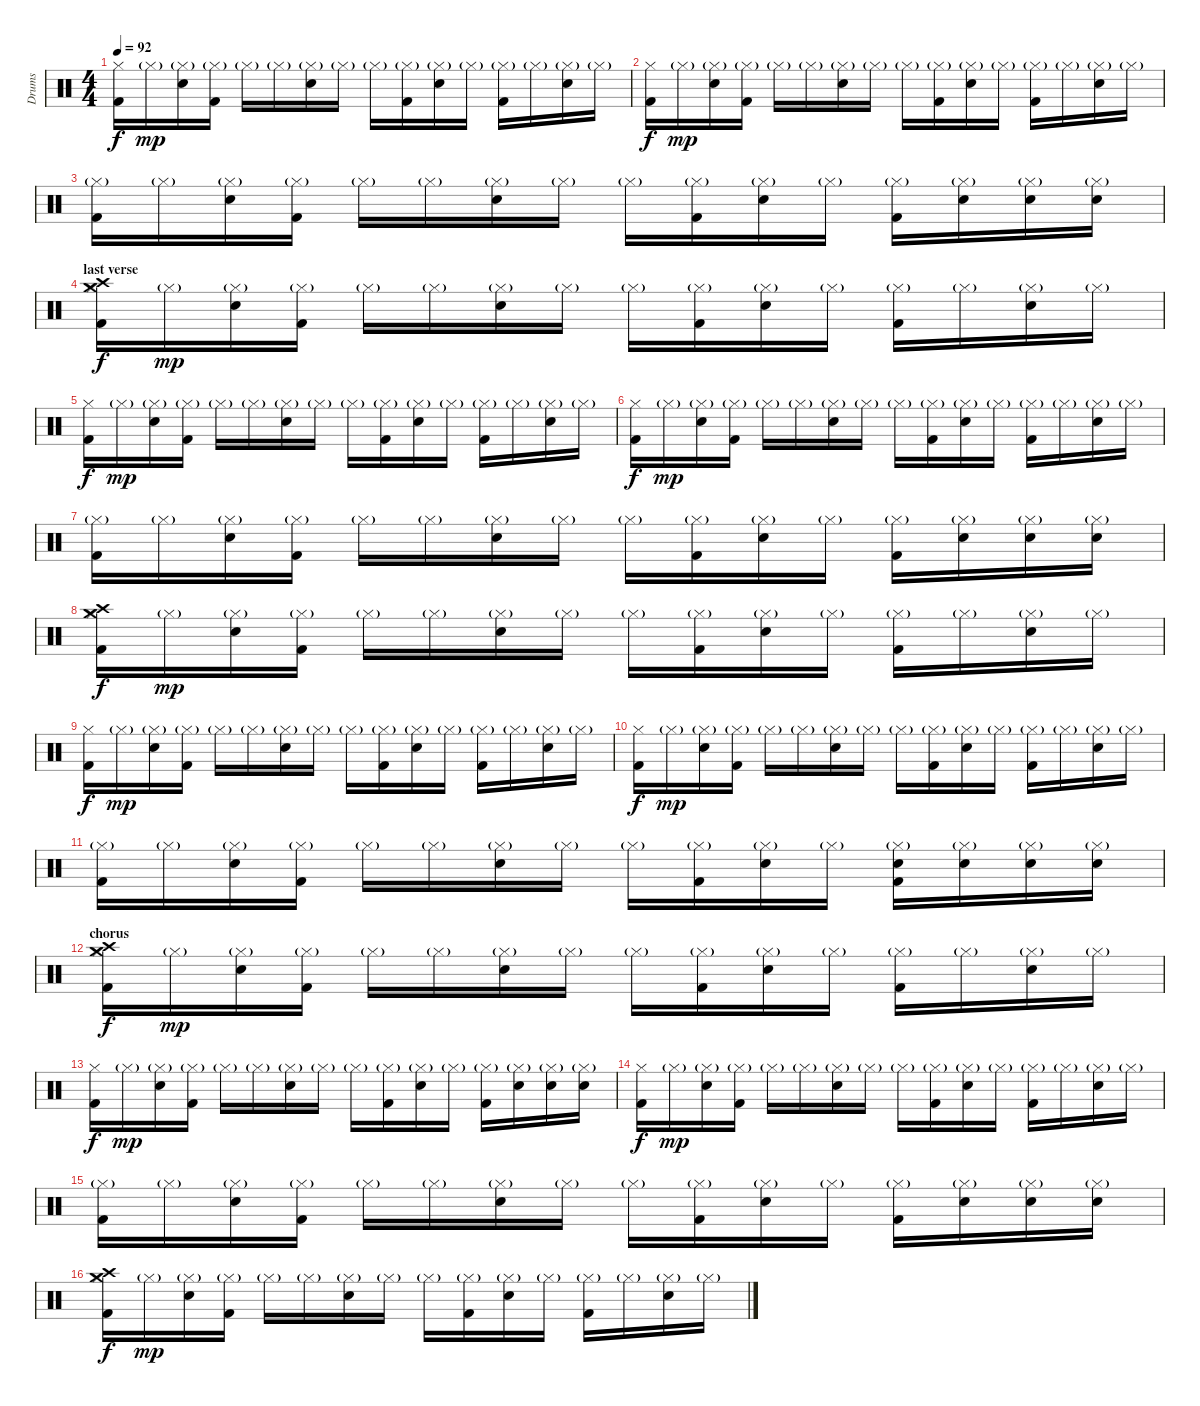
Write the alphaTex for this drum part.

\track ("Drums" "Drums") {instrument percussion}
\staff {score}
\articulation defaults
\ts (4 4)
\tempo 92
\clef neutral
\ks c
("Hi-Hat (closed)" "Kick (hit) 2").16{dy f} "Hi-Hat (closed)"{g}.16{dy mp} ("Hi-Hat (closed)"{g} "Snare (hit) 2").16 ("Hi-Hat (closed)"{g} "Kick (hit) 2").16 "Hi-Hat (closed)"{g}.16 "Hi-Hat (closed)"{g}.16 ("Hi-Hat (closed)"{g} "Snare (hit) 2").16 "Hi-Hat (closed)"{g}.16 "Hi-Hat (closed)"{g}.16 ("Hi-Hat (closed)"{g} "Kick (hit) 2").16 ("Hi-Hat (closed)"{g} "Snare (hit) 2").16 "Hi-Hat (closed)"{g}.16 ("Hi-Hat (closed)"{g} "Kick (hit) 2").16 "Hi-Hat (closed)"{g}.16 ("Hi-Hat (closed)"{g} "Snare (hit) 2").16 "Hi-Hat (closed)"{g}.16 |
("Hi-Hat (closed)" "Kick (hit) 2").16{dy f} "Hi-Hat (closed)"{g}.16{dy mp} ("Hi-Hat (closed)"{g} "Snare (hit) 2").16 ("Hi-Hat (closed)"{g} "Kick (hit) 2").16 "Hi-Hat (closed)"{g}.16 "Hi-Hat (closed)"{g}.16 ("Hi-Hat (closed)"{g} "Snare (hit) 2").16 "Hi-Hat (closed)"{g}.16 "Hi-Hat (closed)"{g}.16 ("Hi-Hat (closed)"{g} "Kick (hit) 2").16 ("Hi-Hat (closed)"{g} "Snare (hit) 2").16 "Hi-Hat (closed)"{g}.16 ("Hi-Hat (closed)"{g} "Kick (hit) 2").16 "Hi-Hat (closed)"{g}.16 ("Hi-Hat (closed)"{g} "Snare (hit) 2").16 "Hi-Hat (closed)"{g}.16 |
("Hi-Hat (closed)"{g} "Kick (hit) 2").16 "Hi-Hat (closed)"{g}.16 ("Hi-Hat (closed)"{g} "Snare (hit) 2").16 ("Hi-Hat (closed)"{g} "Kick (hit) 2").16 "Hi-Hat (closed)"{g}.16 "Hi-Hat (closed)"{g}.16 ("Hi-Hat (closed)"{g} "Snare (hit) 2").16 "Hi-Hat (closed)"{g}.16 "Hi-Hat (closed)"{g}.16 ("Hi-Hat (closed)"{g} "Kick (hit) 2").16 ("Hi-Hat (closed)"{g} "Snare (hit) 2").16 "Hi-Hat (closed)"{g}.16 ("Hi-Hat (closed)"{g} "Kick (hit) 2").16 ("Hi-Hat (closed)"{g} "Snare (hit) 2").16 ("Hi-Hat (closed)"{g} "Snare (hit) 2").16 ("Hi-Hat (closed)"{g} "Snare (hit) 2").16 |
\section ("" "last verse")
("Hi-Hat (closed)" "Kick (hit) 2" "Crash medium (hit)" "Crash high (hit)").16{dy f} "Hi-Hat (closed)"{g}.16{dy mp} ("Hi-Hat (closed)"{g} "Snare (hit) 2").16 ("Hi-Hat (closed)"{g} "Kick (hit) 2").16 "Hi-Hat (closed)"{g}.16 "Hi-Hat (closed)"{g}.16 ("Hi-Hat (closed)"{g} "Snare (hit) 2").16 "Hi-Hat (closed)"{g}.16 "Hi-Hat (closed)"{g}.16 ("Hi-Hat (closed)"{g} "Kick (hit) 2").16 ("Hi-Hat (closed)"{g} "Snare (hit) 2").16 "Hi-Hat (closed)"{g}.16 ("Hi-Hat (closed)"{g} "Kick (hit) 2").16 "Hi-Hat (closed)"{g}.16 ("Hi-Hat (closed)"{g} "Snare (hit) 2").16 "Hi-Hat (closed)"{g}.16 |
("Hi-Hat (closed)" "Kick (hit) 2").16{dy f} "Hi-Hat (closed)"{g}.16{dy mp} ("Hi-Hat (closed)"{g} "Snare (hit) 2").16 ("Hi-Hat (closed)"{g} "Kick (hit) 2").16 "Hi-Hat (closed)"{g}.16 "Hi-Hat (closed)"{g}.16 ("Hi-Hat (closed)"{g} "Snare (hit) 2").16 "Hi-Hat (closed)"{g}.16 "Hi-Hat (closed)"{g}.16 ("Hi-Hat (closed)"{g} "Kick (hit) 2").16 ("Hi-Hat (closed)"{g} "Snare (hit) 2").16 "Hi-Hat (closed)"{g}.16 ("Hi-Hat (closed)"{g} "Kick (hit) 2").16 "Hi-Hat (closed)"{g}.16 ("Hi-Hat (closed)"{g} "Snare (hit) 2").16 "Hi-Hat (closed)"{g}.16 |
("Hi-Hat (closed)" "Kick (hit) 2").16{dy f} "Hi-Hat (closed)"{g}.16{dy mp} ("Hi-Hat (closed)"{g} "Snare (hit) 2").16 ("Hi-Hat (closed)"{g} "Kick (hit) 2").16 "Hi-Hat (closed)"{g}.16 "Hi-Hat (closed)"{g}.16 ("Hi-Hat (closed)"{g} "Snare (hit) 2").16 "Hi-Hat (closed)"{g}.16 "Hi-Hat (closed)"{g}.16 ("Hi-Hat (closed)"{g} "Kick (hit) 2").16 ("Hi-Hat (closed)"{g} "Snare (hit) 2").16 "Hi-Hat (closed)"{g}.16 ("Hi-Hat (closed)"{g} "Kick (hit) 2").16 "Hi-Hat (closed)"{g}.16 ("Hi-Hat (closed)"{g} "Snare (hit) 2").16 "Hi-Hat (closed)"{g}.16 |
("Hi-Hat (closed)"{g} "Kick (hit) 2").16 "Hi-Hat (closed)"{g}.16 ("Hi-Hat (closed)"{g} "Snare (hit) 2").16 ("Hi-Hat (closed)"{g} "Kick (hit) 2").16 "Hi-Hat (closed)"{g}.16 "Hi-Hat (closed)"{g}.16 ("Hi-Hat (closed)"{g} "Snare (hit) 2").16 "Hi-Hat (closed)"{g}.16 "Hi-Hat (closed)"{g}.16 ("Hi-Hat (closed)"{g} "Kick (hit) 2").16 ("Hi-Hat (closed)"{g} "Snare (hit) 2").16 "Hi-Hat (closed)"{g}.16 ("Hi-Hat (closed)"{g} "Kick (hit) 2").16 ("Hi-Hat (closed)"{g} "Snare (hit) 2").16 ("Hi-Hat (closed)"{g} "Snare (hit) 2").16 ("Hi-Hat (closed)"{g} "Snare (hit) 2").16 |
("Hi-Hat (closed)" "Kick (hit) 2" "Crash medium (hit)" "Crash high (hit)").16{dy f} "Hi-Hat (closed)"{g}.16{dy mp} ("Hi-Hat (closed)"{g} "Snare (hit) 2").16 ("Hi-Hat (closed)"{g} "Kick (hit) 2").16 "Hi-Hat (closed)"{g}.16 "Hi-Hat (closed)"{g}.16 ("Hi-Hat (closed)"{g} "Snare (hit) 2").16 "Hi-Hat (closed)"{g}.16 "Hi-Hat (closed)"{g}.16 ("Hi-Hat (closed)"{g} "Kick (hit) 2").16 ("Hi-Hat (closed)"{g} "Snare (hit) 2").16 "Hi-Hat (closed)"{g}.16 ("Hi-Hat (closed)"{g} "Kick (hit) 2").16 "Hi-Hat (closed)"{g}.16 ("Hi-Hat (closed)"{g} "Snare (hit) 2").16 "Hi-Hat (closed)"{g}.16 |
("Hi-Hat (closed)" "Kick (hit) 2").16{dy f} "Hi-Hat (closed)"{g}.16{dy mp} ("Hi-Hat (closed)"{g} "Snare (hit) 2").16 ("Hi-Hat (closed)"{g} "Kick (hit) 2").16 "Hi-Hat (closed)"{g}.16 "Hi-Hat (closed)"{g}.16 ("Hi-Hat (closed)"{g} "Snare (hit) 2").16 "Hi-Hat (closed)"{g}.16 "Hi-Hat (closed)"{g}.16 ("Hi-Hat (closed)"{g} "Kick (hit) 2").16 ("Hi-Hat (closed)"{g} "Snare (hit) 2").16 "Hi-Hat (closed)"{g}.16 ("Hi-Hat (closed)"{g} "Kick (hit) 2").16 "Hi-Hat (closed)"{g}.16 ("Hi-Hat (closed)"{g} "Snare (hit) 2").16 "Hi-Hat (closed)"{g}.16 |
("Hi-Hat (closed)" "Kick (hit) 2").16{dy f} "Hi-Hat (closed)"{g}.16{dy mp} ("Hi-Hat (closed)"{g} "Snare (hit) 2").16 ("Hi-Hat (closed)"{g} "Kick (hit) 2").16 "Hi-Hat (closed)"{g}.16 "Hi-Hat (closed)"{g}.16 ("Hi-Hat (closed)"{g} "Snare (hit) 2").16 "Hi-Hat (closed)"{g}.16 "Hi-Hat (closed)"{g}.16 ("Hi-Hat (closed)"{g} "Kick (hit) 2").16 ("Hi-Hat (closed)"{g} "Snare (hit) 2").16 "Hi-Hat (closed)"{g}.16 ("Hi-Hat (closed)"{g} "Kick (hit) 2").16 "Hi-Hat (closed)"{g}.16 ("Hi-Hat (closed)"{g} "Snare (hit) 2").16 "Hi-Hat (closed)"{g}.16 |
("Hi-Hat (closed)"{g} "Kick (hit) 2").16 "Hi-Hat (closed)"{g}.16 ("Hi-Hat (closed)"{g} "Snare (hit) 2").16 ("Hi-Hat (closed)"{g} "Kick (hit) 2").16 "Hi-Hat (closed)"{g}.16 "Hi-Hat (closed)"{g}.16 ("Hi-Hat (closed)"{g} "Snare (hit) 2").16 "Hi-Hat (closed)"{g}.16 "Hi-Hat (closed)"{g}.16 ("Hi-Hat (closed)"{g} "Kick (hit) 2").16 ("Hi-Hat (closed)"{g} "Snare (hit) 2").16 "Hi-Hat (closed)"{g}.16 ("Hi-Hat (closed)"{g} "Kick (hit) 2" "Snare (hit) 2").16 ("Hi-Hat (closed)"{g} "Snare (hit) 2").16 ("Hi-Hat (closed)"{g} "Snare (hit) 2").16 ("Hi-Hat (closed)"{g} "Snare (hit) 2").16 |
\section ("" "chorus")
("Hi-Hat (closed)" "Kick (hit) 2" "Crash medium (hit)" "Crash high (hit)").16{dy f} "Hi-Hat (closed)"{g}.16{dy mp} ("Hi-Hat (closed)"{g} "Snare (hit) 2").16 ("Hi-Hat (closed)"{g} "Kick (hit) 2").16 "Hi-Hat (closed)"{g}.16 "Hi-Hat (closed)"{g}.16 ("Hi-Hat (closed)"{g} "Snare (hit) 2").16 "Hi-Hat (closed)"{g}.16 "Hi-Hat (closed)"{g}.16 ("Hi-Hat (closed)"{g} "Kick (hit) 2").16 ("Hi-Hat (closed)"{g} "Snare (hit) 2").16 "Hi-Hat (closed)"{g}.16 ("Hi-Hat (closed)"{g} "Kick (hit) 2").16 "Hi-Hat (closed)"{g}.16 ("Hi-Hat (closed)"{g} "Snare (hit) 2").16 "Hi-Hat (closed)"{g}.16 |
("Hi-Hat (closed)" "Kick (hit) 2").16{dy f} "Hi-Hat (closed)"{g}.16{dy mp} ("Hi-Hat (closed)"{g} "Snare (hit) 2").16 ("Hi-Hat (closed)"{g} "Kick (hit) 2").16 "Hi-Hat (closed)"{g}.16 "Hi-Hat (closed)"{g}.16 ("Hi-Hat (closed)"{g} "Snare (hit) 2").16 "Hi-Hat (closed)"{g}.16 "Hi-Hat (closed)"{g}.16 ("Hi-Hat (closed)"{g} "Kick (hit) 2").16 ("Hi-Hat (closed)"{g} "Snare (hit) 2").16 "Hi-Hat (closed)"{g}.16 ("Hi-Hat (closed)"{g} "Kick (hit) 2").16 ("Hi-Hat (closed)"{g} "Snare (hit) 2").16 ("Hi-Hat (closed)"{g} "Snare (hit) 2").16 ("Hi-Hat (closed)"{g} "Snare (hit) 2").16 |
("Hi-Hat (closed)" "Kick (hit) 2").16{dy f} "Hi-Hat (closed)"{g}.16{dy mp} ("Hi-Hat (closed)"{g} "Snare (hit) 2").16 ("Hi-Hat (closed)"{g} "Kick (hit) 2").16 "Hi-Hat (closed)"{g}.16 "Hi-Hat (closed)"{g}.16 ("Hi-Hat (closed)"{g} "Snare (hit) 2").16 "Hi-Hat (closed)"{g}.16 "Hi-Hat (closed)"{g}.16 ("Hi-Hat (closed)"{g} "Kick (hit) 2").16 ("Hi-Hat (closed)"{g} "Snare (hit) 2").16 "Hi-Hat (closed)"{g}.16 ("Hi-Hat (closed)"{g} "Kick (hit) 2").16 "Hi-Hat (closed)"{g}.16 ("Hi-Hat (closed)"{g} "Snare (hit) 2").16 "Hi-Hat (closed)"{g}.16 |
("Hi-Hat (closed)"{g} "Kick (hit) 2").16 "Hi-Hat (closed)"{g}.16 ("Hi-Hat (closed)"{g} "Snare (hit) 2").16 ("Hi-Hat (closed)"{g} "Kick (hit) 2").16 "Hi-Hat (closed)"{g}.16 "Hi-Hat (closed)"{g}.16 ("Hi-Hat (closed)"{g} "Snare (hit) 2").16 "Hi-Hat (closed)"{g}.16 "Hi-Hat (closed)"{g}.16 ("Hi-Hat (closed)"{g} "Kick (hit) 2").16 ("Hi-Hat (closed)"{g} "Snare (hit) 2").16 "Hi-Hat (closed)"{g}.16 ("Hi-Hat (closed)"{g} "Kick (hit) 2").16 ("Hi-Hat (closed)"{g} "Snare (hit) 2").16 ("Hi-Hat (closed)"{g} "Snare (hit) 2").16 ("Hi-Hat (closed)"{g} "Snare (hit) 2").16 |
("Hi-Hat (closed)" "Kick (hit) 2" "Crash medium (hit)" "Crash high (hit)").16{dy f} "Hi-Hat (closed)"{g}.16{dy mp} ("Hi-Hat (closed)"{g} "Snare (hit) 2").16 ("Hi-Hat (closed)"{g} "Kick (hit) 2").16 "Hi-Hat (closed)"{g}.16 "Hi-Hat (closed)"{g}.16 ("Hi-Hat (closed)"{g} "Snare (hit) 2").16 "Hi-Hat (closed)"{g}.16 "Hi-Hat (closed)"{g}.16 ("Hi-Hat (closed)"{g} "Kick (hit) 2").16 ("Hi-Hat (closed)"{g} "Snare (hit) 2").16 "Hi-Hat (closed)"{g}.16 ("Hi-Hat (closed)"{g} "Kick (hit) 2").16 "Hi-Hat (closed)"{g}.16 ("Hi-Hat (closed)"{g} "Snare (hit) 2").16 "Hi-Hat (closed)"{g}.16
